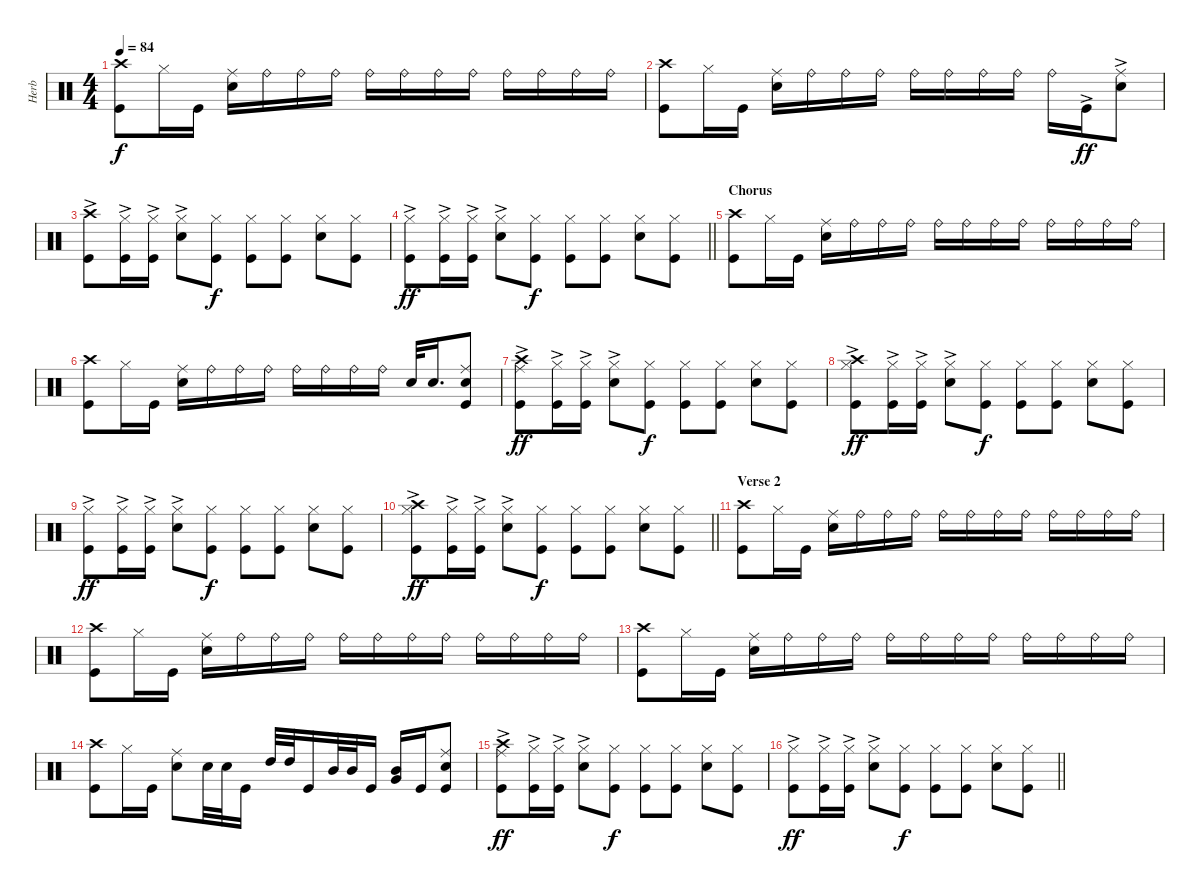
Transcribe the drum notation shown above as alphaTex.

\track ("Herb" "Herb") {instrument percussion}
\staff {score}
\articulation defaults
\ts (4 4)
\tempo 84
\clef neutral
\ks c
("Crash high (hit)" "Kick (hit)").8{dy f} "Hi-Hat (closed)".16 "Kick (hit)".16 ("Ride (middle)" "Snare (hit) 2").16 "Ride (bell)".16 "Ride (bell)".16 "Ride (bell)".16 "Ride (bell)".16 "Ride (bell)".16 "Ride (bell)".16 "Ride (bell)".16 "Ride (bell)".16 "Ride (bell)".16 "Ride (bell)".16 "Ride (bell)".16 |
("Crash high (hit)" "Kick (hit)").8 "Hi-Hat (closed)".16 "Kick (hit)".16 ("Ride (middle)" "Snare (hit) 2").16 "Ride (bell)".16 "Ride (bell)".16 "Ride (bell)".16 "Ride (bell)".16 "Ride (bell)".16 "Ride (bell)".16 "Ride (bell)".16 "Ride (bell)".16 "Kick (hit)"{ac}.16{dy ff} ("Ride (middle)"{ac} "Snare (hit) 2"{ac}).8 |
("Crash high (hit)"{ac} "Kick (hit)").8 ("Hi-Hat (closed)"{ac} "Kick (hit)").16 ("Hi-Hat (closed)"{ac} "Kick (hit)").16 ("Hi-Hat (closed)"{ac} "Snare (hit) 2"{ac}).8 ("Hi-Hat (closed)" "Kick (hit)").8{dy f} ("Hi-Hat (closed)" "Kick (hit)").8 ("Hi-Hat (closed)" "Kick (hit)").8 ("Hi-Hat (closed)" "Snare (hit) 2").8 ("Hi-Hat (closed)" "Kick (hit)").8 |
\barLineRight lightlight
("Hi-Hat (closed)"{ac} "Kick (hit)").8{dy ff} ("Hi-Hat (closed)"{ac} "Kick (hit)").16 ("Hi-Hat (closed)"{ac} "Kick (hit)").16 ("Hi-Hat (closed)"{ac} "Snare (hit) 2"{ac}).8 ("Hi-Hat (closed)" "Kick (hit)").8{dy f} ("Hi-Hat (closed)" "Kick (hit)").8 ("Hi-Hat (closed)" "Kick (hit)").8 ("Hi-Hat (closed)" "Snare (hit) 2").8 ("Hi-Hat (closed)" "Kick (hit)").8 |
\section ("" "Chorus")
("Crash high (hit)" "Kick (hit)").8 "Hi-Hat (closed)".16 "Kick (hit)".16 ("Ride (middle)" "Snare (hit) 2").16 "Ride (bell)".16 "Ride (bell)".16 "Ride (bell)".16 "Ride (bell)".16 "Ride (bell)".16 "Ride (bell)".16 "Ride (bell)".16 "Ride (bell)".16 "Ride (bell)".16 "Ride (bell)".16 "Ride (bell)".16 |
("Crash high (hit)" "Kick (hit)").8 "Hi-Hat (closed)".16 "Kick (hit)".16 ("Ride (middle)" "Snare (hit) 2").16 "Ride (bell)".16 "Ride (bell)".16 "Ride (bell)".16 "Ride (bell)".16 "Ride (bell)".16 "Ride (bell)".16 "Ride (bell)".16 "Snare (hit) 2".32 "Snare (hit) 2".16{d} ("Ride (middle)" "Snare (hit) 2" "Kick (hit)").8 |
("Ride (middle)"{ac} "Crash high (hit)" "Kick (hit)").8{dy ff} ("Hi-Hat (closed)"{ac} "Kick (hit)").16 ("Hi-Hat (closed)"{ac} "Kick (hit)").16 ("Hi-Hat (closed)"{ac} "Snare (hit) 2"{ac}).8 ("Hi-Hat (closed)" "Kick (hit)").8{dy f} ("Hi-Hat (closed)" "Kick (hit)").8 ("Hi-Hat (closed)" "Kick (hit)").8 ("Hi-Hat (closed)" "Snare (hit) 2").8 ("Hi-Hat (closed)" "Kick (hit)").8 |
("Hi-Hat (closed)"{ac} "Crash high (hit)" "Kick (hit)").8{dy ff} ("Hi-Hat (closed)"{ac} "Kick (hit)").16 ("Hi-Hat (closed)"{ac} "Kick (hit)").16 ("Hi-Hat (closed)"{ac} "Snare (hit) 2"{ac}).8 ("Hi-Hat (closed)" "Kick (hit)").8{dy f} ("Hi-Hat (closed)" "Kick (hit)").8 ("Hi-Hat (closed)" "Kick (hit)").8 ("Hi-Hat (closed)" "Snare (hit) 2").8 ("Hi-Hat (closed)" "Kick (hit)").8 |
("Hi-Hat (closed)"{ac} "Kick (hit)").8{dy ff} ("Hi-Hat (closed)"{ac} "Kick (hit)").16 ("Hi-Hat (closed)"{ac} "Kick (hit)").16 ("Hi-Hat (closed)"{ac} "Snare (hit) 2"{ac}).8 ("Hi-Hat (closed)" "Kick (hit)").8{dy f} ("Hi-Hat (closed)" "Kick (hit)").8 ("Hi-Hat (closed)" "Kick (hit)").8 ("Hi-Hat (closed)" "Snare (hit) 2").8 ("Hi-Hat (closed)" "Kick (hit)").8 |
\barLineRight lightlight
("Hi-Hat (closed)"{ac} "Crash high (hit)" "Kick (hit)").8{dy ff} ("Hi-Hat (closed)"{ac} "Kick (hit)").16 ("Hi-Hat (closed)"{ac} "Kick (hit)").16 ("Hi-Hat (closed)"{ac} "Snare (hit) 2"{ac}).8 ("Hi-Hat (closed)" "Kick (hit)").8{dy f} ("Hi-Hat (closed)" "Kick (hit)").8 ("Hi-Hat (closed)" "Kick (hit)").8 ("Hi-Hat (closed)" "Snare (hit) 2").8 ("Hi-Hat (closed)" "Kick (hit)").8 |
\section ("" "Verse 2")
("Crash high (hit)" "Kick (hit)").8 "Hi-Hat (closed)".16 "Kick (hit)".16 ("Ride (middle)" "Snare (hit) 2").16 "Ride (bell)".16 "Ride (bell)".16 "Ride (bell)".16 "Ride (bell)".16 "Ride (bell)".16 "Ride (bell)".16 "Ride (bell)".16 "Ride (bell)".16 "Ride (bell)".16 "Ride (bell)".16 "Ride (bell)".16 |
("Crash high (hit)" "Kick (hit)").8 "Hi-Hat (closed)".16 "Kick (hit)".16 ("Ride (middle)" "Snare (hit) 2").16 "Ride (bell)".16 "Ride (bell)".16 "Ride (bell)".16 "Ride (bell)".16 "Ride (bell)".16 "Ride (bell)".16 "Ride (bell)".16 "Ride (bell)".16 "Ride (bell)".16 "Ride (bell)".16 "Ride (bell)".16 |
("Crash high (hit)" "Kick (hit)").8 "Hi-Hat (closed)".16 "Kick (hit)".16 ("Ride (middle)" "Snare (hit) 2").16 "Ride (bell)".16 "Ride (bell)".16 "Ride (bell)".16 "Ride (bell)".16 "Ride (bell)".16 "Ride (bell)".16 "Ride (bell)".16 "Ride (bell)".16 "Ride (bell)".16 "Ride (bell)".16 "Ride (bell)".16 |
("Crash high (hit)" "Kick (hit)").8 "Hi-Hat (closed)".16 "Kick (hit)".16 ("Ride (middle)" "Snare (hit) 2").8 "Snare (hit) 2".32 "Snare (hit) 2".32 "Kick (hit)".16 "High Tom (hit)".32 "High Tom (hit)".32 "Kick (hit)".16 "Mid Tom (hit)".32 "Mid Tom (hit)".32 "Kick (hit)".16 ("Mid Tom (hit)" "Very Low Tom (hit)").16 "Kick (hit)".16 ("Ride (middle)" "Snare (hit) 2" "Kick (hit)").8 |
("Ride (middle)"{ac} "Crash high (hit)" "Kick (hit)").8{dy ff} ("Hi-Hat (closed)"{ac} "Kick (hit)").16 ("Hi-Hat (closed)"{ac} "Kick (hit)").16 ("Hi-Hat (closed)"{ac} "Snare (hit) 2"{ac}).8 ("Hi-Hat (closed)" "Kick (hit)").8{dy f} ("Hi-Hat (closed)" "Kick (hit)").8 ("Hi-Hat (closed)" "Kick (hit)").8 ("Hi-Hat (closed)" "Snare (hit) 2").8 ("Hi-Hat (closed)" "Kick (hit)").8 |
\barLineRight lightlight
("Hi-Hat (closed)"{ac} "Kick (hit)").8{dy ff} ("Hi-Hat (closed)"{ac} "Kick (hit)").16 ("Hi-Hat (closed)"{ac} "Kick (hit)").16 ("Hi-Hat (closed)"{ac} "Snare (hit) 2"{ac}).8 ("Hi-Hat (closed)" "Kick (hit)").8{dy f} ("Hi-Hat (closed)" "Kick (hit)").8 ("Hi-Hat (closed)" "Kick (hit)").8 ("Hi-Hat (closed)" "Snare (hit) 2").8 ("Hi-Hat (closed)" "Kick (hit)").8
